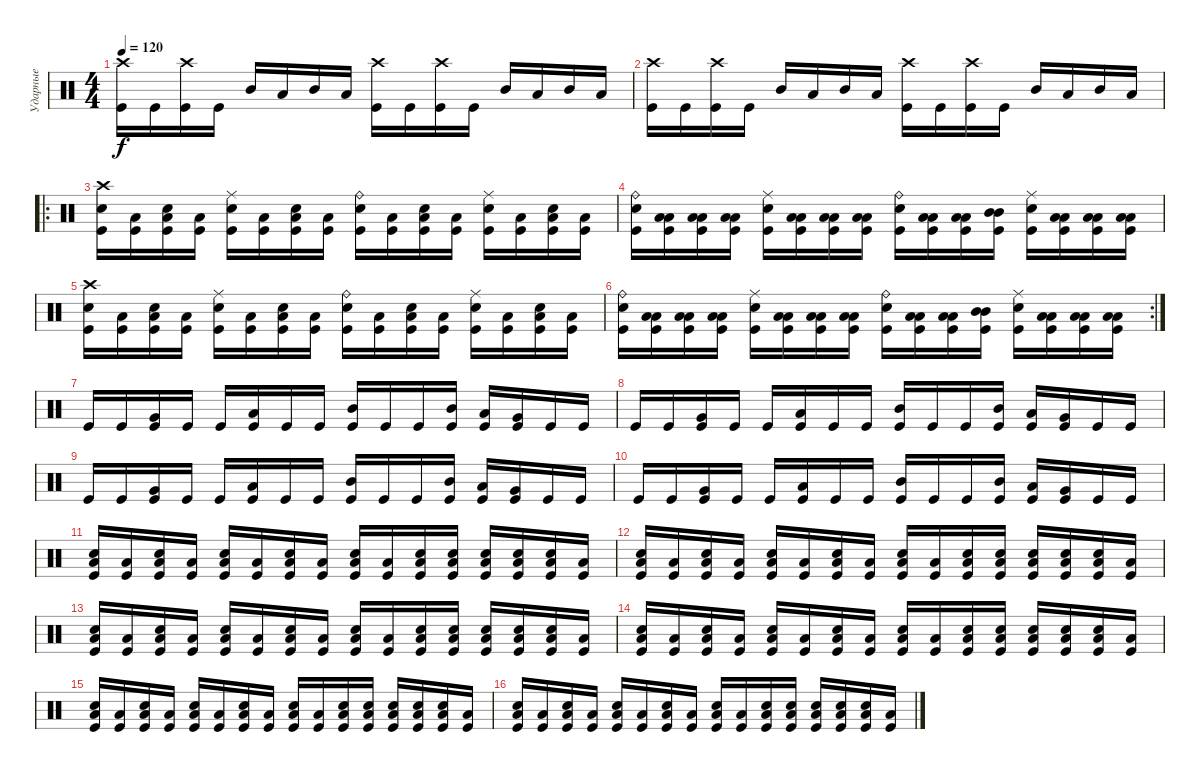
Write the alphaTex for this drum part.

\track ("Ударные" "Ударные") {instrument percussion}
\staff {score}
\articulation defaults
\ts (4 4)
\tempo 120
\clef neutral
\ks c
("Crash high (hit)" "Kick (hit)").16{dy f} "Kick (hit)".16 ("Crash high (hit)" "Kick (hit)").16 "Kick (hit)".16 "Mid Tom (hit)".16 "Low Tom (hit)".16 "Mid Tom (hit)".16 "Low Tom (hit)".16 ("Crash high (hit)" "Kick (hit)").16 "Kick (hit)".16 ("Crash high (hit)" "Kick (hit)").16 "Kick (hit)".16 "Mid Tom (hit)".16 "Low Tom (hit)".16 "Mid Tom (hit)".16 "Low Tom (hit)".16 |
("Crash high (hit)" "Kick (hit)").16 "Kick (hit)".16 ("Crash high (hit)" "Kick (hit)").16 "Kick (hit)".16 "Mid Tom (hit)".16 "Low Tom (hit)".16 "Mid Tom (hit)".16 "Low Tom (hit)".16 ("Crash high (hit)" "Kick (hit)").16 "Kick (hit)".16 ("Crash high (hit)" "Kick (hit)").16 "Kick (hit)".16 "Mid Tom (hit)".16 "Low Tom (hit)".16 "Mid Tom (hit)".16 "Low Tom (hit)".16 |
\ro
("Crash high (hit)" "Snare (hit) 2" "Kick (hit)").16 ("Low Tom (hit)" "Kick (hit)").16 ("Low Tom (hit)" "Snare (hit) 2" "Kick (hit)").16 ("Low Tom (hit)" "Kick (hit)").16 ("Ride (middle)" "Snare (hit) 2" "Kick (hit)").16 ("Low Tom (hit)" "Kick (hit)").16 ("Low Tom (hit)" "Snare (hit) 2" "Kick (hit)").16 ("Low Tom (hit)" "Kick (hit)").16 ("Ride (bell)" "Snare (hit) 2" "Kick (hit)").16 ("Low Tom (hit)" "Kick (hit)").16 ("Low Tom (hit)" "Snare (hit) 2" "Kick (hit)").16 ("Low Tom (hit)" "Kick (hit)").16 ("Ride (middle)" "Snare (hit) 2" "Kick (hit)").16 ("Low Tom (hit)" "Kick (hit)").16 ("Low Tom (hit)" "Snare (hit) 2" "Kick (hit)").16 ("Low Tom (hit)" "Kick (hit)").16 |
("Ride (bell)" "Snare (hit) 2" "Kick (hit)").16 ("Low Tom (hit)" "Low Tom (hit)" "Kick (hit)").16 ("Low Tom (hit)" "Low Tom (hit)" "Kick (hit)").16 ("Low Tom (hit)" "Low Tom (hit)" "Kick (hit)").16 ("Ride (middle)" "Snare (hit) 2" "Kick (hit)").16 ("Low Tom (hit)" "Low Tom (hit)" "Kick (hit)").16 ("Low Tom (hit)" "Low Tom (hit)" "Kick (hit)").16 ("Low Tom (hit)" "Low Tom (hit)" "Kick (hit)").16 ("Ride (bell)" "Snare (hit) 2" "Kick (hit)").16 ("Low Tom (hit)" "Low Tom (hit)" "Kick (hit)").16 ("Low Tom (hit)" "Low Tom (hit)" "Kick (hit)").16 ("Mid Tom (hit)" "Mid Tom (hit)" "Kick (hit)").16 ("Ride (middle)" "Snare (hit) 2" "Kick (hit)").16 ("Low Tom (hit)" "Low Tom (hit)" "Kick (hit)").16 ("Low Tom (hit)" "Low Tom (hit)" "Kick (hit)").16 ("Low Tom (hit)" "Low Tom (hit)" "Kick (hit)").16 |
("Crash high (hit)" "Snare (hit) 2" "Kick (hit)").16 ("Low Tom (hit)" "Kick (hit)").16 ("Low Tom (hit)" "Snare (hit) 2" "Kick (hit)").16 ("Low Tom (hit)" "Kick (hit)").16 ("Ride (middle)" "Snare (hit) 2" "Kick (hit)").16 ("Low Tom (hit)" "Kick (hit)").16 ("Low Tom (hit)" "Snare (hit) 2" "Kick (hit)").16 ("Low Tom (hit)" "Kick (hit)").16 ("Ride (bell)" "Snare (hit) 2" "Kick (hit)").16 ("Low Tom (hit)" "Kick (hit)").16 ("Low Tom (hit)" "Snare (hit) 2" "Kick (hit)").16 ("Low Tom (hit)" "Kick (hit)").16 ("Ride (middle)" "Snare (hit) 2" "Kick (hit)").16 ("Low Tom (hit)" "Kick (hit)").16 ("Low Tom (hit)" "Snare (hit) 2" "Kick (hit)").16 ("Low Tom (hit)" "Kick (hit)").16 |
\rc 2
("Ride (bell)" "Snare (hit) 2" "Kick (hit)").16 ("Low Tom (hit)" "Low Tom (hit)" "Kick (hit)").16 ("Low Tom (hit)" "Low Tom (hit)" "Kick (hit)").16 ("Low Tom (hit)" "Low Tom (hit)" "Kick (hit)").16 ("Ride (middle)" "Snare (hit) 2" "Kick (hit)").16 ("Low Tom (hit)" "Low Tom (hit)" "Kick (hit)").16 ("Low Tom (hit)" "Low Tom (hit)" "Kick (hit)").16 ("Low Tom (hit)" "Low Tom (hit)" "Kick (hit)").16 ("Ride (bell)" "Snare (hit) 2" "Kick (hit)").16 ("Low Tom (hit)" "Low Tom (hit)" "Kick (hit)").16 ("Low Tom (hit)" "Low Tom (hit)" "Kick (hit)").16 ("Mid Tom (hit)" "Mid Tom (hit)" "Kick (hit)").16 ("Ride (middle)" "Snare (hit) 2" "Kick (hit)").16 ("Low Tom (hit)" "Low Tom (hit)" "Kick (hit)").16 ("Low Tom (hit)" "Low Tom (hit)" "Kick (hit)").16 ("Low Tom (hit)" "Low Tom (hit)" "Kick (hit)").16 |
"Kick (hit)".16 "Kick (hit)".16 ("Very Low Tom (hit)" "Kick (hit)").16 "Kick (hit)".16 "Kick (hit)".16 ("Low Tom (hit)" "Kick (hit)").16 "Kick (hit)".16 "Kick (hit)".16 ("Mid Tom (hit)" "Kick (hit)").16 "Kick (hit)".16 "Kick (hit)".16 ("Mid Tom (hit)" "Kick (hit)").16 ("Low Tom (hit)" "Kick (hit)").16 ("Very Low Tom (hit)" "Kick (hit)").16 "Kick (hit)".16 "Kick (hit)".16 |
"Kick (hit)".16 "Kick (hit)".16 ("Very Low Tom (hit)" "Kick (hit)").16 "Kick (hit)".16 "Kick (hit)".16 ("Low Tom (hit)" "Kick (hit)").16 "Kick (hit)".16 "Kick (hit)".16 ("Mid Tom (hit)" "Kick (hit)").16 "Kick (hit)".16 "Kick (hit)".16 ("Mid Tom (hit)" "Kick (hit)").16 ("Low Tom (hit)" "Kick (hit)").16 ("Very Low Tom (hit)" "Kick (hit)").16 "Kick (hit)".16 "Kick (hit)".16 |
"Kick (hit)".16 "Kick (hit)".16 ("Very Low Tom (hit)" "Kick (hit)").16 "Kick (hit)".16 "Kick (hit)".16 ("Low Tom (hit)" "Kick (hit)").16 "Kick (hit)".16 "Kick (hit)".16 ("Mid Tom (hit)" "Kick (hit)").16 "Kick (hit)".16 "Kick (hit)".16 ("Mid Tom (hit)" "Kick (hit)").16 ("Low Tom (hit)" "Kick (hit)").16 ("Very Low Tom (hit)" "Kick (hit)").16 "Kick (hit)".16 "Kick (hit)".16 |
"Kick (hit)".16 "Kick (hit)".16 ("Very Low Tom (hit)" "Kick (hit)").16 "Kick (hit)".16 "Kick (hit)".16 ("Low Tom (hit)" "Kick (hit)").16 "Kick (hit)".16 "Kick (hit)".16 ("Mid Tom (hit)" "Kick (hit)").16 "Kick (hit)".16 "Kick (hit)".16 ("Mid Tom (hit)" "Kick (hit)").16 ("Low Tom (hit)" "Kick (hit)").16 ("Very Low Tom (hit)" "Kick (hit)").16 "Kick (hit)".16 "Kick (hit)".16 |
("Low Tom (hit)" "Electric Snare (hit)" "Kick (hit)").16 ("Low Tom (hit)" "Kick (hit)").16 ("Low Tom (hit)" "Electric Snare (hit)" "Kick (hit)").16 ("Low Tom (hit)" "Kick (hit)").16 ("Low Tom (hit)" "Electric Snare (hit)" "Kick (hit)").16 ("Low Tom (hit)" "Kick (hit)").16 ("Low Tom (hit)" "Electric Snare (hit)" "Kick (hit)").16 ("Low Tom (hit)" "Kick (hit)").16 ("Low Tom (hit)" "Electric Snare (hit)" "Kick (hit)").16 ("Low Tom (hit)" "Kick (hit)").16 ("Low Tom (hit)" "Electric Snare (hit)" "Kick (hit)").16 ("Low Tom (hit)" "Electric Snare (hit)" "Kick (hit)").16 ("Low Tom (hit)" "Electric Snare (hit)" "Kick (hit)").16 ("Low Tom (hit)" "Electric Snare (hit)" "Kick (hit)").16 ("Low Tom (hit)" "Electric Snare (hit)" "Kick (hit)").16 ("Low Tom (hit)" "Kick (hit)").16 |
("Low Tom (hit)" "Electric Snare (hit)" "Kick (hit)").16 ("Low Tom (hit)" "Kick (hit)").16 ("Low Tom (hit)" "Electric Snare (hit)" "Kick (hit)").16 ("Low Tom (hit)" "Kick (hit)").16 ("Low Tom (hit)" "Electric Snare (hit)" "Kick (hit)").16 ("Low Tom (hit)" "Kick (hit)").16 ("Low Tom (hit)" "Electric Snare (hit)" "Kick (hit)").16 ("Low Tom (hit)" "Kick (hit)").16 ("Low Tom (hit)" "Electric Snare (hit)" "Kick (hit)").16 ("Low Tom (hit)" "Kick (hit)").16 ("Low Tom (hit)" "Electric Snare (hit)" "Kick (hit)").16 ("Low Tom (hit)" "Electric Snare (hit)" "Kick (hit)").16 ("Low Tom (hit)" "Electric Snare (hit)" "Kick (hit)").16 ("Low Tom (hit)" "Electric Snare (hit)" "Kick (hit)").16 ("Low Tom (hit)" "Electric Snare (hit)" "Kick (hit)").16 ("Low Tom (hit)" "Kick (hit)").16 |
("Low Tom (hit)" "Electric Snare (hit)" "Kick (hit)").16 ("Low Tom (hit)" "Kick (hit)").16 ("Low Tom (hit)" "Electric Snare (hit)" "Kick (hit)").16 ("Low Tom (hit)" "Kick (hit)").16 ("Low Tom (hit)" "Electric Snare (hit)" "Kick (hit)").16 ("Low Tom (hit)" "Kick (hit)").16 ("Low Tom (hit)" "Electric Snare (hit)" "Kick (hit)").16 ("Low Tom (hit)" "Kick (hit)").16 ("Low Tom (hit)" "Electric Snare (hit)" "Kick (hit)").16 ("Low Tom (hit)" "Kick (hit)").16 ("Low Tom (hit)" "Electric Snare (hit)" "Kick (hit)").16 ("Low Tom (hit)" "Electric Snare (hit)" "Kick (hit)").16 ("Low Tom (hit)" "Electric Snare (hit)" "Kick (hit)").16 ("Low Tom (hit)" "Electric Snare (hit)" "Kick (hit)").16 ("Low Tom (hit)" "Electric Snare (hit)" "Kick (hit)").16 ("Low Tom (hit)" "Kick (hit)").16 |
("Low Tom (hit)" "Electric Snare (hit)" "Kick (hit)").16 ("Low Tom (hit)" "Kick (hit)").16 ("Low Tom (hit)" "Electric Snare (hit)" "Kick (hit)").16 ("Low Tom (hit)" "Kick (hit)").16 ("Low Tom (hit)" "Electric Snare (hit)" "Kick (hit)").16 ("Low Tom (hit)" "Kick (hit)").16 ("Low Tom (hit)" "Electric Snare (hit)" "Kick (hit)").16 ("Low Tom (hit)" "Kick (hit)").16 ("Low Tom (hit)" "Electric Snare (hit)" "Kick (hit)").16 ("Low Tom (hit)" "Kick (hit)").16 ("Low Tom (hit)" "Electric Snare (hit)" "Kick (hit)").16 ("Low Tom (hit)" "Electric Snare (hit)" "Kick (hit)").16 ("Low Tom (hit)" "Electric Snare (hit)" "Kick (hit)").16 ("Low Tom (hit)" "Electric Snare (hit)" "Kick (hit)").16 ("Low Tom (hit)" "Electric Snare (hit)" "Kick (hit)").16 ("Low Tom (hit)" "Kick (hit)").16 |
("Low Tom (hit)" "Electric Snare (hit)" "Kick (hit)").16 ("Low Tom (hit)" "Kick (hit)").16 ("Low Tom (hit)" "Electric Snare (hit)" "Kick (hit)").16 ("Low Tom (hit)" "Kick (hit)").16 ("Low Tom (hit)" "Electric Snare (hit)" "Kick (hit)").16 ("Low Tom (hit)" "Kick (hit)").16 ("Low Tom (hit)" "Electric Snare (hit)" "Kick (hit)").16 ("Low Tom (hit)" "Kick (hit)").16 ("Low Tom (hit)" "Electric Snare (hit)" "Kick (hit)").16 ("Low Tom (hit)" "Kick (hit)").16 ("Low Tom (hit)" "Electric Snare (hit)" "Kick (hit)").16 ("Low Tom (hit)" "Electric Snare (hit)" "Kick (hit)").16 ("Low Tom (hit)" "Electric Snare (hit)" "Kick (hit)").16 ("Low Tom (hit)" "Electric Snare (hit)" "Kick (hit)").16 ("Low Tom (hit)" "Electric Snare (hit)" "Kick (hit)").16 ("Low Tom (hit)" "Kick (hit)").16 |
("Low Tom (hit)" "Electric Snare (hit)" "Kick (hit)").16 ("Low Tom (hit)" "Kick (hit)").16 ("Low Tom (hit)" "Electric Snare (hit)" "Kick (hit)").16 ("Low Tom (hit)" "Kick (hit)").16 ("Low Tom (hit)" "Electric Snare (hit)" "Kick (hit)").16 ("Low Tom (hit)" "Kick (hit)").16 ("Low Tom (hit)" "Electric Snare (hit)" "Kick (hit)").16 ("Low Tom (hit)" "Kick (hit)").16 ("Low Tom (hit)" "Electric Snare (hit)" "Kick (hit)").16 ("Low Tom (hit)" "Kick (hit)").16 ("Low Tom (hit)" "Electric Snare (hit)" "Kick (hit)").16 ("Low Tom (hit)" "Electric Snare (hit)" "Kick (hit)").16 ("Low Tom (hit)" "Electric Snare (hit)" "Kick (hit)").16 ("Low Tom (hit)" "Electric Snare (hit)" "Kick (hit)").16 ("Low Tom (hit)" "Electric Snare (hit)" "Kick (hit)").16 ("Low Tom (hit)" "Kick (hit)").16
